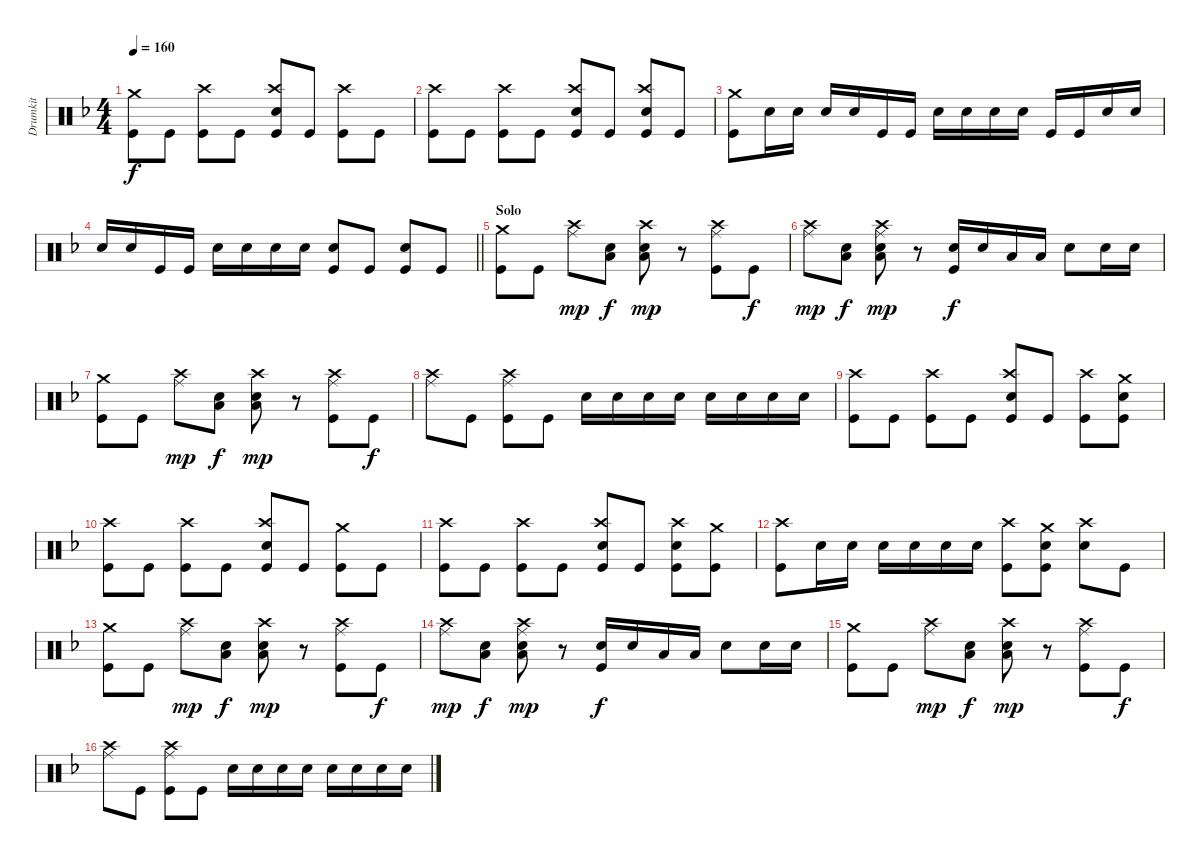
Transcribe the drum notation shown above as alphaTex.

\track ("Drumkit" "Drumkit") {instrument percussion}
\staff {score}
\articulation defaults
\ts (4 4)
\tempo 160
\clef neutral
\ks dminor
("Crash medium (hit)" "Kick (hit)").8{dy f} "Kick (hit)".8 ("Crash high (hit)" "Kick (hit)").8 "Kick (hit)".8 ("Crash high (hit)" "Snare (hit) 2" "Kick (hit)").8 "Kick (hit)".8 ("Crash high (hit)" "Kick (hit)").8 "Kick (hit)".8 |
("Crash high (hit)" "Kick (hit)").8 "Kick (hit)".8 ("Crash high (hit)" "Kick (hit)").8 "Kick (hit)".8 ("Crash high (hit)" "Snare (hit) 2" "Kick (hit)").8 "Kick (hit)".8 ("Crash high (hit)" "Snare (hit) 2" "Kick (hit)").8 "Kick (hit)".8 |
("Crash medium (hit)" "Kick (hit)").8 "Snare (hit) 2".16 "Snare (hit) 2".16 "Snare (hit) 2".16 "Snare (hit) 2".16 "Kick (hit)".16 "Kick (hit)".16 "Snare (hit) 2".16 "Snare (hit) 2".16 "Snare (hit) 2".16 "Snare (hit) 2".16 "Kick (hit)".16 "Kick (hit)".16 "Snare (hit) 2".16 "Snare (hit) 2".16 |
\barLineRight lightlight "Snare (hit) 2".16 "Snare (hit) 2".16 "Kick (hit)".16 "Kick (hit)".16 "Snare (hit) 2".16 "Snare (hit) 2".16 "Snare (hit) 2".16 "Snare (hit) 2".16
("Snare (hit) 2" "Kick (hit)").8 "Kick (hit)".8 ("Snare (hit) 2" "Kick (hit)").8 "Kick (hit)".8 |
\section ("" "Solo")
("Crash medium (hit)" "Kick (hit)").8 "Kick (hit)".8 ("Crash high (hit)" "Ride (middle)").8{dy mp} ("Snare (hit) 2" "Low Floor Tom (hit)").8{dy f} ("Crash high (hit)" "Snare (hit) 2" "Low Floor Tom (hit)").8{dy mp} r.8 ("Crash high (hit)" "Ride (middle)" "Kick (hit)").8 "Kick (hit)".8{dy f} |
("Crash high (hit)" "Ride (middle)").8{dy mp} ("Snare (hit) 2" "Low Floor Tom (hit)").8{dy f} ("Crash high (hit)" "Ride (middle)" "Snare (hit) 2" "Low Floor Tom (hit)").8{dy mp} r.8 ("Snare (hit) 2" "Kick (hit)").16{dy f} "Snare (hit) 2".16 "Low Tom (hit)".16 "Low Floor Tom (hit)".16 "Snare (hit) 2".8 "Snare (hit) 2".16 "Snare (hit) 2".16 |
("Crash medium (hit)" "Kick (hit)").8 "Kick (hit)".8 ("Crash high (hit)" "Ride (middle)").8{dy mp} ("Snare (hit) 2" "Low Floor Tom (hit)").8{dy f} ("Crash high (hit)" "Snare (hit) 2" "Low Floor Tom (hit)").8{dy mp} r.8 ("Crash high (hit)" "Ride (middle)" "Kick (hit)").8 "Kick (hit)".8{dy f} |
("Crash high (hit)" "Ride (middle)").8 "Kick (hit)".8 ("Crash high (hit)" "Ride (middle)" "Kick (hit)").8 "Kick (hit)".8 "Snare (hit) 2".16 "Snare (hit) 2".16 "Snare (hit) 2".16 "Snare (hit) 2".16 "Snare (hit) 2".16 "Snare (hit) 2".16 "Snare (hit) 2".16 "Snare (hit) 2".16 |
("Crash high (hit)" "Kick (hit)").8 "Kick (hit)".8 ("Crash high (hit)" "Kick (hit)").8 "Kick (hit)".8 ("Crash high (hit)" "Snare (hit) 2" "Kick (hit)").8 "Kick (hit)".8 ("Crash high (hit)" "Kick (hit)").8 ("Crash medium (hit)" "Snare (hit) 2" "Kick (hit)").8 |
("Crash high (hit)" "Kick (hit)").8 "Kick (hit)".8 ("Crash high (hit)" "Kick (hit)").8 "Kick (hit)".8 ("Crash high (hit)" "Snare (hit) 2" "Kick (hit)").8 "Kick (hit)".8 ("Crash medium (hit)" "Kick (hit)").8 "Kick (hit)".8 |
("Crash high (hit)" "Kick (hit)").8 "Kick (hit)".8 ("Crash high (hit)" "Kick (hit)").8 "Kick (hit)".8 ("Crash high (hit)" "Snare (hit) 2" "Kick (hit)").8 "Kick (hit)".8 ("Crash high (hit)" "Snare (hit) 2" "Kick (hit)").8 ("Crash medium (hit)" "Kick (hit)").8 |
("Crash high (hit)" "Kick (hit)").8 "Snare (hit) 2".16 "Snare (hit) 2".16 "Snare (hit) 2".16 "Snare (hit) 2".16 "Snare (hit) 2".16 "Snare (hit) 2".16 ("Crash high (hit)" "Kick (hit)").8 ("Crash medium (hit)" "Snare (hit) 2" "Kick (hit)").8 ("Crash high (hit)" "Snare (hit) 2").8 "Kick (hit)".8 |
("Crash medium (hit)" "Kick (hit)").8 "Kick (hit)".8 ("Crash high (hit)" "Ride (middle)").8{dy mp} ("Snare (hit) 2" "Low Floor Tom (hit)").8{dy f} ("Crash high (hit)" "Snare (hit) 2" "Low Floor Tom (hit)").8{dy mp} r.8 ("Crash high (hit)" "Ride (middle)" "Kick (hit)").8 "Kick (hit)".8{dy f} |
("Crash high (hit)" "Ride (middle)").8{dy mp} ("Snare (hit) 2" "Low Floor Tom (hit)").8{dy f} ("Crash high (hit)" "Ride (middle)" "Snare (hit) 2" "Low Floor Tom (hit)").8{dy mp} r.8 ("Snare (hit) 2" "Kick (hit)").16{dy f} "Snare (hit) 2".16 "Low Tom (hit)".16 "Low Floor Tom (hit)".16 "Snare (hit) 2".8 "Snare (hit) 2".16 "Snare (hit) 2".16 |
("Crash medium (hit)" "Kick (hit)").8 "Kick (hit)".8 ("Crash high (hit)" "Ride (middle)").8{dy mp} ("Snare (hit) 2" "Low Floor Tom (hit)").8{dy f} ("Crash high (hit)" "Snare (hit) 2" "Low Floor Tom (hit)").8{dy mp} r.8 ("Crash high (hit)" "Ride (middle)" "Kick (hit)").8 "Kick (hit)".8{dy f} |
("Crash high (hit)" "Ride (middle)").8 "Kick (hit)".8 ("Crash high (hit)" "Ride (middle)" "Kick (hit)").8 "Kick (hit)".8 "Snare (hit) 2".16 "Snare (hit) 2".16 "Snare (hit) 2".16 "Snare (hit) 2".16 "Snare (hit) 2".16 "Snare (hit) 2".16 "Snare (hit) 2".16 "Snare (hit) 2".16
